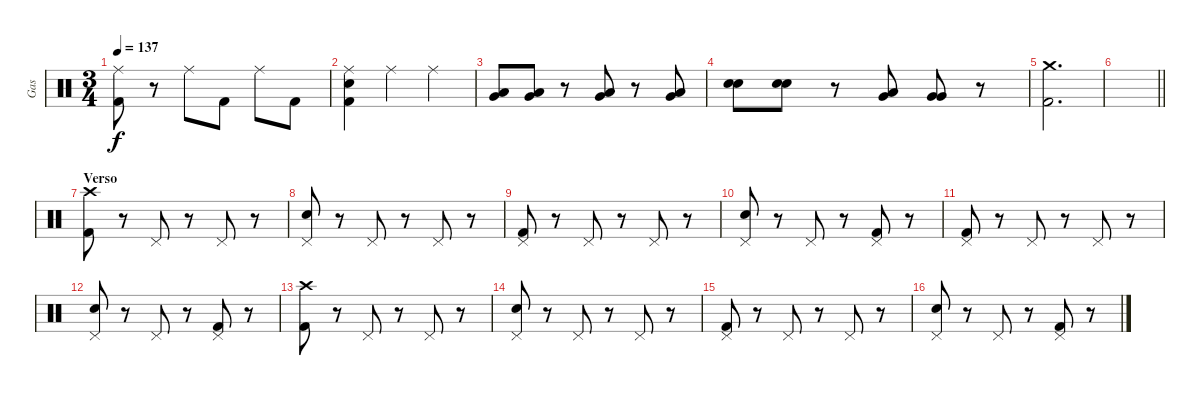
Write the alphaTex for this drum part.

\track ("Gas" "Gas") {instrument percussion}
\staff {score}
\articulation defaults
\ts (3 4)
\tempo 137
\clef neutral
\ks c
("Ride (middle)" "Kick (hit) 2").8{dy f} r.8 "Ride (middle)".8 "Kick (hit) 2".8 "Ride (middle)".8 "Kick (hit) 2".8 |
("Ride (middle)" "Snare (hit) 2" "Kick (hit) 2").4 "Ride (middle)".4 "Ride (middle)".4 |
("Low Tom (hit)" "Very Low Tom (hit)").8 ("Low Tom (hit)" "Very Low Tom (hit)").8 r.8 ("Low Tom (hit)" "Very Low Tom (hit)").8 r.8 ("Low Tom (hit)" "Very Low Tom (hit)").8 |
("Snare (hit) 2" "Snare (hit) 2").8{bd 60} ("Snare (hit) 2" "Snare (hit) 2").8{bd 60} r.8 ("Low Tom (hit)" "Very Low Tom (hit)").8{bd 60} ("Very Low Tom (hit)" "Very Low Tom (hit)").8{bd 60} r.8 |
("Crash medium (hit)" "Kick (hit) 2").2{d} |
\barLineRight lightlight
|
\section ("" "Verso")
("Crash high (hit)" "Kick (hit) 2").8 r.8 "Pedal Hi-Hat (hit)".8 r.8 "Pedal Hi-Hat (hit)".8 r.8 |
("Pedal Hi-Hat (hit)" "Snare (hit) 2").8 r.8 "Pedal Hi-Hat (hit)".8 r.8 "Pedal Hi-Hat (hit)".8 r.8 |
("Pedal Hi-Hat (hit)" "Kick (hit) 2").8 r.8 "Pedal Hi-Hat (hit)".8 r.8 "Pedal Hi-Hat (hit)".8 r.8 |
("Pedal Hi-Hat (hit)" "Snare (hit) 2").8 r.8 "Pedal Hi-Hat (hit)".8 r.8 ("Pedal Hi-Hat (hit)" "Kick (hit) 2").8 r.8 |
("Pedal Hi-Hat (hit)" "Kick (hit) 2").8 r.8 "Pedal Hi-Hat (hit)".8 r.8 "Pedal Hi-Hat (hit)".8 r.8 |
("Pedal Hi-Hat (hit)" "Snare (hit) 2").8 r.8 "Pedal Hi-Hat (hit)".8 r.8 ("Pedal Hi-Hat (hit)" "Kick (hit) 2").8 r.8 |
("Crash high (hit)" "Kick (hit) 2").8 r.8 "Pedal Hi-Hat (hit)".8 r.8 "Pedal Hi-Hat (hit)".8 r.8 |
("Pedal Hi-Hat (hit)" "Snare (hit) 2").8 r.8 "Pedal Hi-Hat (hit)".8 r.8 "Pedal Hi-Hat (hit)".8 r.8 |
("Pedal Hi-Hat (hit)" "Kick (hit) 2").8 r.8 "Pedal Hi-Hat (hit)".8 r.8 "Pedal Hi-Hat (hit)".8 r.8 |
("Pedal Hi-Hat (hit)" "Snare (hit) 2").8 r.8 "Pedal Hi-Hat (hit)".8 r.8 ("Pedal Hi-Hat (hit)" "Kick (hit) 2").8 r.8
